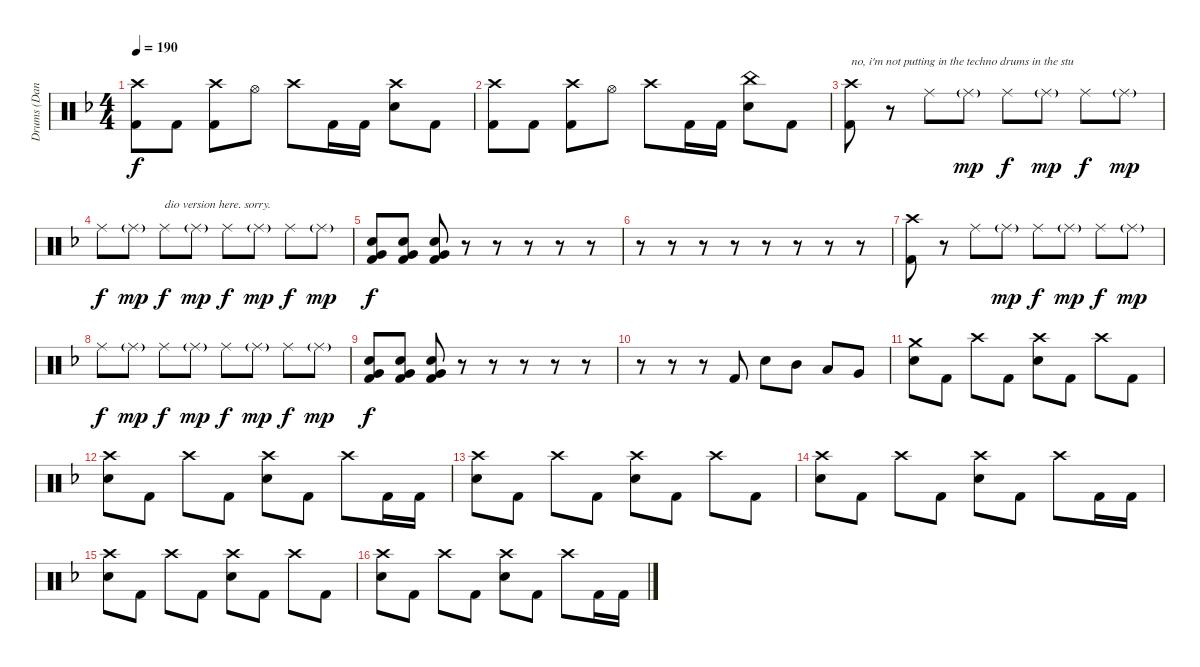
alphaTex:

\track ("Drums (Daniel)" "Drums (Dan") {instrument percussion}
\staff {score}
\articulation defaults
\ts (4 4)
\tempo 190
\clef neutral
\ks dminor
("Crash high (hit)" "Kick (hit) 2").8{dy f} "Kick (hit) 2".8 ("Crash high (hit)" "Kick (hit) 2").8 "Hi-Hat (open)".8 "Crash high (hit)".8 "Kick (hit) 2".16 "Kick (hit) 2".16 ("Crash high (hit)" "Electric Snare (hit)").8 "Kick (hit) 2".8 |
("Crash high (hit)" "Kick (hit) 2").8 "Kick (hit) 2".8 ("Crash high (hit)" "Kick (hit) 2").8 "Hi-Hat (open)".8 "Crash high (hit)".8 "Kick (hit) 2".16 "Kick (hit) 2".16 ("China (hit)" "Electric Snare (hit)").8 "Kick (hit) 2".8 |
("Crash high (hit)" "Kick (hit) 2").8{txt "no, i'm not putting in the techno drums in the stu"} r.8 "Ride (middle)".8 "Ride (middle)"{g}.8{dy mp} "Ride (middle)".8{dy f} "Ride (middle)"{g}.8{dy mp} "Ride (middle)".8{dy f} "Ride (middle)"{g}.8{dy mp} |
"Ride (middle)".8{dy f} "Ride (middle)"{g}.8{dy mp} "Ride (middle)".8{txt "dio version here. sorry." dy f} "Ride (middle)"{g}.8{dy mp} "Ride (middle)".8{dy f} "Ride (middle)"{g}.8{dy mp} "Ride (middle)".8{dy f} "Ride (middle)"{g}.8{dy mp} |
("Very Low Tom (hit)" "Electric Snare (hit)" "Kick (hit) 2").8{dy f} ("Very Low Tom (hit)" "Electric Snare (hit)" "Kick (hit) 2").8 ("Very Low Tom (hit)" "Electric Snare (hit)" "Kick (hit) 2").8 r.8 r.8 r.8 r.8 r.8 |
r.8 r.8 r.8 r.8 r.8 r.8 r.8 r.8 |
("Crash high (hit)" "Kick (hit) 2").8 r.8 "Ride (middle)".8 "Ride (middle)"{g}.8{dy mp} "Ride (middle)".8{dy f} "Ride (middle)"{g}.8{dy mp} "Ride (middle)".8{dy f} "Ride (middle)"{g}.8{dy mp} |
"Ride (middle)".8{dy f} "Ride (middle)"{g}.8{dy mp} "Ride (middle)".8{dy f} "Ride (middle)"{g}.8{dy mp} "Ride (middle)".8{dy f} "Ride (middle)"{g}.8{dy mp} "Ride (middle)".8{dy f} "Ride (middle)"{g}.8{dy mp} |
("Very Low Tom (hit)" "Electric Snare (hit)" "Kick (hit) 2").8{dy f} ("Very Low Tom (hit)" "Electric Snare (hit)" "Kick (hit) 2").8 ("Very Low Tom (hit)" "Electric Snare (hit)" "Kick (hit) 2").8 r.8 r.8 r.8 r.8 r.8 |
r.8 r.8 r.8 "Kick (hit) 2".8 "Electric Snare (hit)".8 "Mid Tom (hit)".8 "Low Tom (hit)".8 "Very Low Tom (hit)".8 |
("Crash medium (hit)" "Electric Snare (hit)").8 "Kick (hit) 2".8 "Crash high (hit)".8 "Kick (hit) 2".8 ("Crash high (hit)" "Electric Snare (hit)").8 "Kick (hit) 2".8 "Crash high (hit)".8 "Kick (hit) 2".8 |
("Crash high (hit)" "Electric Snare (hit)").8 "Kick (hit) 2".8 "Crash high (hit)".8 "Kick (hit) 2".8 ("Crash high (hit)" "Electric Snare (hit)").8 "Kick (hit) 2".8 "Crash high (hit)".8 "Kick (hit) 2".16 "Kick (hit) 2".16 |
("Crash high (hit)" "Electric Snare (hit)").8 "Kick (hit) 2".8 "Crash high (hit)".8 "Kick (hit) 2".8 ("Crash high (hit)" "Electric Snare (hit)").8 "Kick (hit) 2".8 "Crash high (hit)".8 "Kick (hit) 2".8 |
("Crash high (hit)" "Electric Snare (hit)").8 "Kick (hit) 2".8 "Crash high (hit)".8 "Kick (hit) 2".8 ("Crash high (hit)" "Electric Snare (hit)").8 "Kick (hit) 2".8 "Crash high (hit)".8 "Kick (hit) 2".16 "Kick (hit) 2".16 |
("Crash high (hit)" "Electric Snare (hit)").8 "Kick (hit) 2".8 "Crash high (hit)".8 "Kick (hit) 2".8 ("Crash high (hit)" "Electric Snare (hit)").8 "Kick (hit) 2".8 "Crash high (hit)".8 "Kick (hit) 2".8 |
("Crash high (hit)" "Electric Snare (hit)").8 "Kick (hit) 2".8 "Crash high (hit)".8 "Kick (hit) 2".8 ("Crash high (hit)" "Electric Snare (hit)").8 "Kick (hit) 2".8 "Crash high (hit)".8 "Kick (hit) 2".16 "Kick (hit) 2".16
